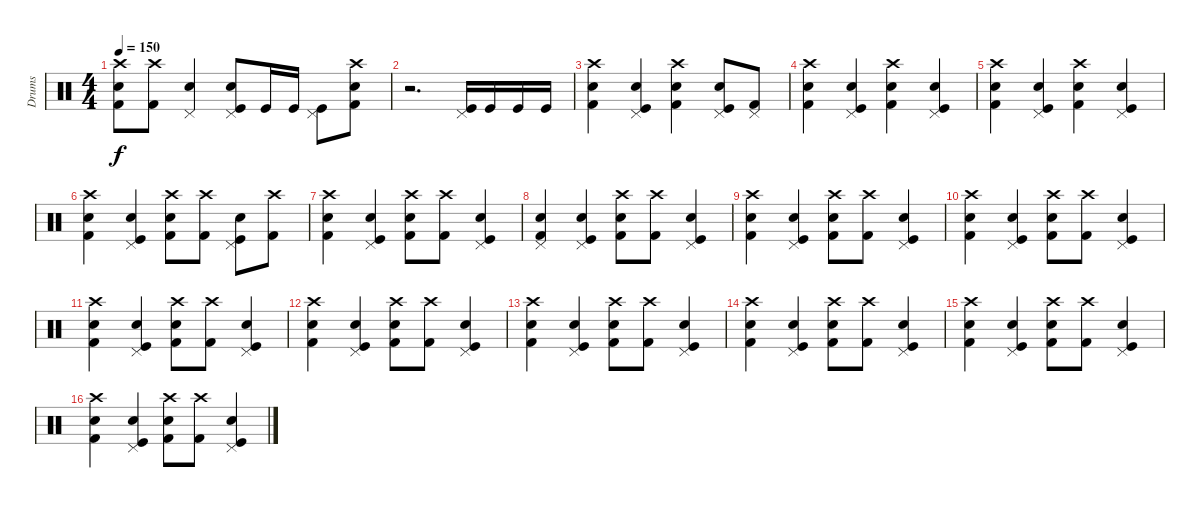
\track ("Drums" "Drums") {instrument percussion}
\staff {score}
\articulation defaults
\ts (4 4)
\tempo 150
\clef neutral
\ks c
("Kick (hit) 2" "Electric Snare (hit)" "Crash high (hit)").8{dy f} ("Kick (hit) 2" "Crash high (hit)").8 ("Electric Snare (hit)" "Pedal Hi-Hat (hit)").4 ("Kick (hit)" "Electric Snare (hit)" "Pedal Hi-Hat (hit)").8 "Kick (hit)".16 "Kick (hit)".16 ("Kick (hit)" "Pedal Hi-Hat (hit)").8 ("Kick (hit) 2" "Electric Snare (hit)" "Crash high (hit)").8 |
r.2{d} ("Kick (hit)" "Pedal Hi-Hat (hit)").16 "Kick (hit)".16 "Kick (hit)".16 "Kick (hit)".16 |
("Kick (hit) 2" "Electric Snare (hit)" "Crash high (hit)").4 ("Kick (hit)" "Electric Snare (hit)" "Pedal Hi-Hat (hit)").4 ("Kick (hit) 2" "Electric Snare (hit)" "Crash high (hit)").4 ("Kick (hit)" "Electric Snare (hit)" "Pedal Hi-Hat (hit)").8 ("Kick (hit) 2" "Pedal Hi-Hat (hit)").8 |
("Kick (hit) 2" "Electric Snare (hit)" "Crash high (hit)").4 ("Kick (hit)" "Electric Snare (hit)" "Pedal Hi-Hat (hit)").4 ("Kick (hit) 2" "Electric Snare (hit)" "Crash high (hit)").4 ("Kick (hit)" "Electric Snare (hit)" "Pedal Hi-Hat (hit)").4 |
("Kick (hit) 2" "Electric Snare (hit)" "Crash high (hit)").4 ("Kick (hit)" "Electric Snare (hit)" "Pedal Hi-Hat (hit)").4 ("Kick (hit) 2" "Electric Snare (hit)" "Crash high (hit)").4 ("Kick (hit)" "Electric Snare (hit)" "Pedal Hi-Hat (hit)").4 |
("Kick (hit) 2" "Electric Snare (hit)" "Crash high (hit)").4 ("Kick (hit)" "Electric Snare (hit)" "Pedal Hi-Hat (hit)").4 ("Kick (hit) 2" "Electric Snare (hit)" "Crash high (hit)").8 ("Kick (hit) 2" "Crash high (hit)").8 ("Kick (hit)" "Electric Snare (hit)" "Pedal Hi-Hat (hit)").8 ("Kick (hit) 2" "Crash high (hit)").8 |
("Kick (hit) 2" "Electric Snare (hit)" "Crash high (hit)").4 ("Kick (hit)" "Electric Snare (hit)" "Pedal Hi-Hat (hit)").4 ("Kick (hit) 2" "Electric Snare (hit)" "Crash high (hit)").8 ("Kick (hit) 2" "Crash high (hit)").8 ("Kick (hit)" "Electric Snare (hit)" "Pedal Hi-Hat (hit)").4 |
("Kick (hit) 2" "Electric Snare (hit)" "Pedal Hi-Hat (hit)").4 ("Kick (hit)" "Electric Snare (hit)" "Pedal Hi-Hat (hit)").4 ("Kick (hit) 2" "Electric Snare (hit)" "Crash high (hit)").8 ("Kick (hit) 2" "Crash high (hit)").8 ("Kick (hit)" "Electric Snare (hit)" "Pedal Hi-Hat (hit)").4 |
("Kick (hit) 2" "Electric Snare (hit)" "Crash high (hit)").4 ("Kick (hit)" "Electric Snare (hit)" "Pedal Hi-Hat (hit)").4 ("Kick (hit) 2" "Electric Snare (hit)" "Crash high (hit)").8 ("Kick (hit) 2" "Crash high (hit)").8 ("Kick (hit)" "Electric Snare (hit)" "Pedal Hi-Hat (hit)").4 |
("Kick (hit) 2" "Electric Snare (hit)" "Crash high (hit)").4 ("Kick (hit)" "Electric Snare (hit)" "Pedal Hi-Hat (hit)").4 ("Kick (hit) 2" "Electric Snare (hit)" "Crash high (hit)").8 ("Kick (hit) 2" "Crash high (hit)").8 ("Kick (hit)" "Electric Snare (hit)" "Pedal Hi-Hat (hit)").4 |
("Kick (hit) 2" "Electric Snare (hit)" "Crash high (hit)").4 ("Kick (hit)" "Electric Snare (hit)" "Pedal Hi-Hat (hit)").4 ("Kick (hit) 2" "Electric Snare (hit)" "Crash high (hit)").8 ("Kick (hit) 2" "Crash high (hit)").8 ("Kick (hit)" "Electric Snare (hit)" "Pedal Hi-Hat (hit)").4 |
("Kick (hit) 2" "Electric Snare (hit)" "Crash high (hit)").4 ("Kick (hit)" "Electric Snare (hit)" "Pedal Hi-Hat (hit)").4 ("Kick (hit) 2" "Electric Snare (hit)" "Crash high (hit)").8 ("Kick (hit) 2" "Crash high (hit)").8 ("Kick (hit)" "Electric Snare (hit)" "Pedal Hi-Hat (hit)").4 |
("Kick (hit) 2" "Electric Snare (hit)" "Crash high (hit)").4 ("Kick (hit)" "Electric Snare (hit)" "Pedal Hi-Hat (hit)").4 ("Kick (hit) 2" "Electric Snare (hit)" "Crash high (hit)").8 ("Kick (hit) 2" "Crash high (hit)").8 ("Kick (hit)" "Electric Snare (hit)" "Pedal Hi-Hat (hit)").4 |
("Kick (hit) 2" "Electric Snare (hit)" "Crash high (hit)").4 ("Kick (hit)" "Electric Snare (hit)" "Pedal Hi-Hat (hit)").4 ("Kick (hit) 2" "Electric Snare (hit)" "Crash high (hit)").8 ("Kick (hit) 2" "Crash high (hit)").8 ("Kick (hit)" "Electric Snare (hit)" "Pedal Hi-Hat (hit)").4 |
("Kick (hit) 2" "Electric Snare (hit)" "Crash high (hit)").4 ("Kick (hit)" "Electric Snare (hit)" "Pedal Hi-Hat (hit)").4 ("Kick (hit) 2" "Electric Snare (hit)" "Crash high (hit)").8 ("Kick (hit) 2" "Crash high (hit)").8 ("Kick (hit)" "Electric Snare (hit)" "Pedal Hi-Hat (hit)").4 |
("Kick (hit) 2" "Electric Snare (hit)" "Crash high (hit)").4 ("Kick (hit)" "Electric Snare (hit)" "Pedal Hi-Hat (hit)").4 ("Kick (hit) 2" "Electric Snare (hit)" "Crash high (hit)").8 ("Kick (hit) 2" "Crash high (hit)").8 ("Kick (hit)" "Electric Snare (hit)" "Pedal Hi-Hat (hit)").4
